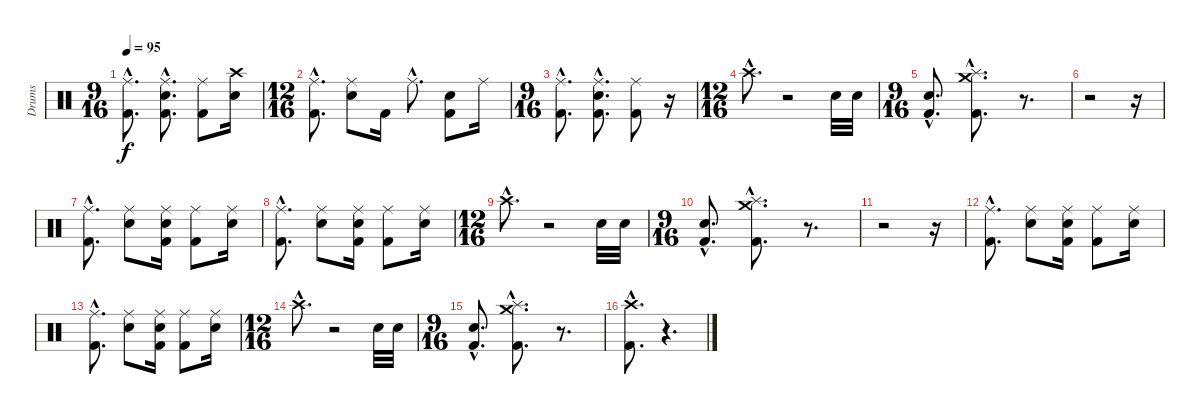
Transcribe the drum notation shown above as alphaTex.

\track ("Drums" "Drums") {instrument percussion}
\staff {score}
\articulation defaults
\ts (9 16)
\tempo 95
\clef neutral
\ks c
("Ride (middle)"{hac} "Kick (hit) 2"{hac}).8{d dy f} ("Ride (middle)"{hac} "Snare (hit) 2"{hac} "Kick (hit) 2"{hac}).8{d} ("Ride (middle)" "Kick (hit) 2").8 ("Crash high (hit)" "Snare (hit) 2").16 |
\ts (12 16)
("Kick (hit) 2"{hac} "Ride (middle)"{hac}).8{d} ("Snare (hit) 2" "Ride (middle)").8 "Kick (hit) 2".16 "Ride (middle)"{hac}.8{d} ("Kick (hit) 2" "Snare (hit) 2").8 "Ride (middle)".16 |
\ts (9 16)
("Ride (middle)"{hac} "Kick (hit) 2"{hac}).8{d} ("Ride (middle)"{hac} "Snare (hit) 2"{hac} "Kick (hit) 2"{hac}).8{d} ("Ride (middle)" "Kick (hit) 2").8 r.16 |
\ts (12 16)
"Crash high (hit)"{hac}.8{d} r.2 "Snare (hit) 2".32 "Snare (hit) 2".32 |
\ts (9 16)
("Snare (hit) 2"{hac} "Kick (hit) 2"{hac}).8{d} ("Kick (hit) 2"{hac} "Crash medium (hit)"{hac} "Splash (hit)"{hac}).8{d} r.8{d} |
r.2 r.16 |
("Kick (hit) 2"{hac} "Ride (middle)"{hac}).8{d} ("Snare (hit) 2" "Ride (middle)").8 ("Kick (hit) 2" "Snare (hit) 2" "Ride (middle)").16 ("Kick (hit) 2" "Ride (middle)").8 ("Snare (hit) 2" "Ride (middle)").16 |
("Kick (hit) 2"{hac} "Ride (middle)"{hac}).8{d} ("Snare (hit) 2" "Ride (middle)").8 ("Kick (hit) 2" "Snare (hit) 2" "Ride (middle)").16 ("Kick (hit) 2" "Ride (middle)").8 ("Snare (hit) 2" "Ride (middle)").16 |
\ts (12 16)
"Crash high (hit)"{hac}.8{d} r.2 "Snare (hit) 2".32 "Snare (hit) 2".32 |
\ts (9 16)
("Snare (hit) 2"{hac} "Kick (hit) 2"{hac}).8{d} ("Kick (hit) 2"{hac} "Crash medium (hit)"{hac} "Splash (hit)"{hac}).8{d} r.8{d} |
r.2 r.16 |
("Kick (hit) 2"{hac} "Ride (middle)"{hac}).8{d} ("Snare (hit) 2" "Ride (middle)").8 ("Kick (hit) 2" "Snare (hit) 2" "Ride (middle)").16 ("Kick (hit) 2" "Ride (middle)").8 ("Snare (hit) 2" "Ride (middle)").16 |
("Kick (hit) 2"{hac} "Ride (middle)"{hac}).8{d} ("Snare (hit) 2" "Ride (middle)").8 ("Kick (hit) 2" "Snare (hit) 2" "Ride (middle)").16 ("Kick (hit) 2" "Ride (middle)").8 ("Snare (hit) 2" "Ride (middle)").16 |
\ts (12 16)
"Crash high (hit)"{hac}.8{d} r.2 "Snare (hit) 2".32 "Snare (hit) 2".32 |
\ts (9 16)
("Snare (hit) 2"{hac} "Kick (hit) 2"{hac}).8{d} ("Kick (hit) 2"{hac} "Crash medium (hit)"{hac} "Splash (hit)"{hac}).8{d} r.8{d} |
("Kick (hit) 2"{hac} "Crash high (hit)"{hac}).8{d} r.4{d}
